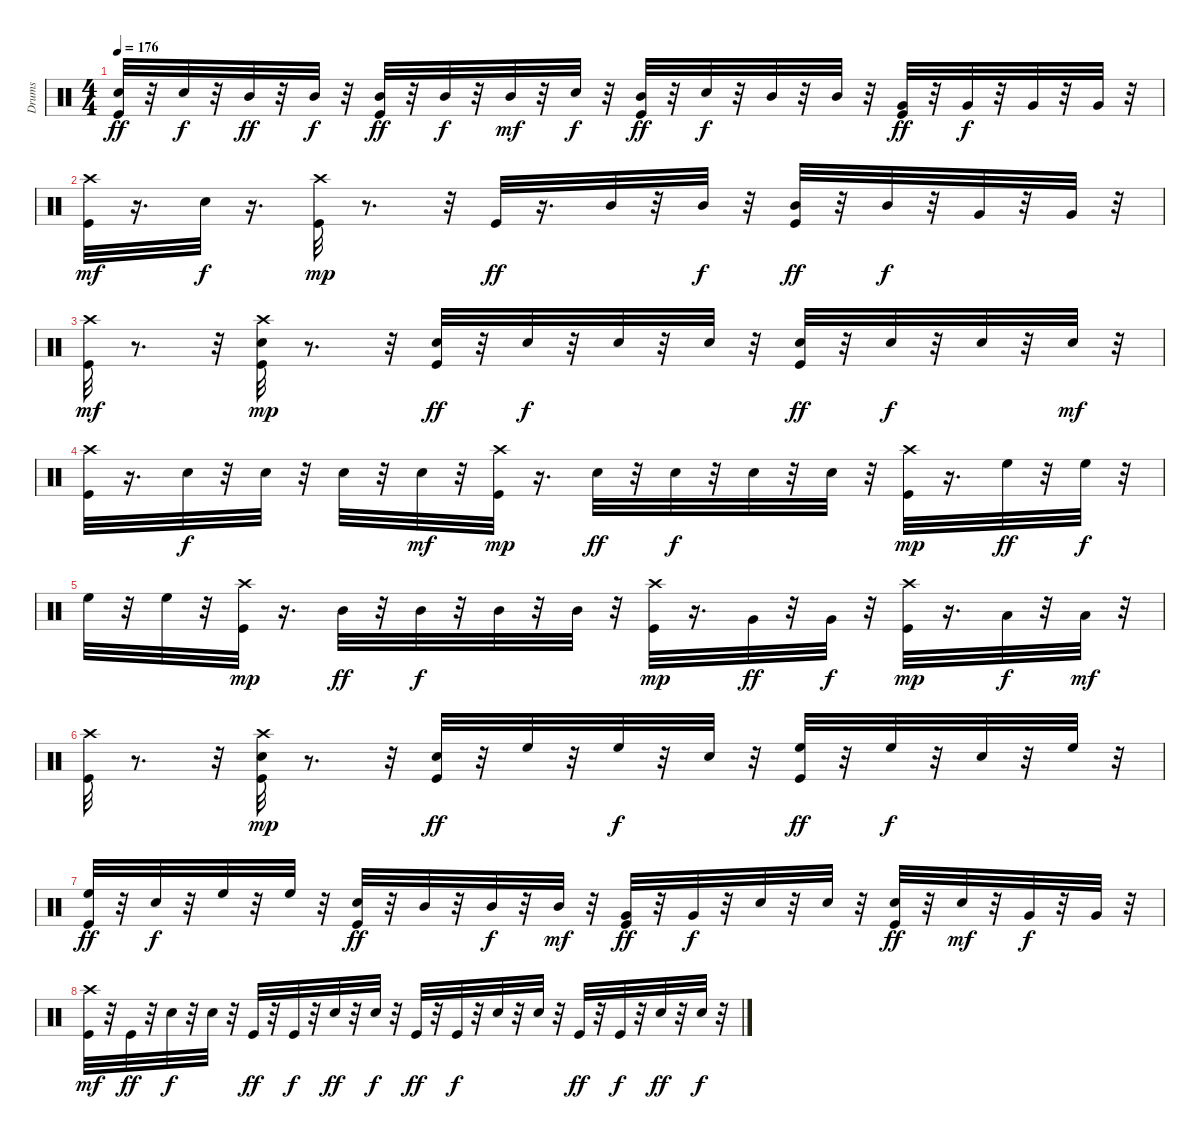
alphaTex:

\track ("Drums" "Drums") {instrument percussion}
\staff {score}
\articulation defaults
\ts (4 4)
\tempo 176
\clef neutral
\ks c
("Kick (hit)" "Snare (hit) 2").32{dy ff} r.32 "Snare (hit) 2".32{dy f} r.32 "Mid Tom (hit)".32{dy ff} r.32 "Mid Tom (hit)".32{dy f} r.32 ("Kick (hit)" "Mid Tom (hit)").32{dy ff} r.32 "Mid Tom (hit)".32{dy f} r.32 "Mid Tom (hit)".32{dy mf} r.32 "Snare (hit) 2".32{dy f} r.32 ("Kick (hit)" "Mid Tom (hit)").32{dy ff} r.32 "Snare (hit) 2".32{dy f} r.32 "Mid Tom (hit)".32 r.32 "Mid Tom (hit)".32 r.32 ("Kick (hit)" "Very Low Tom (hit)").32{dy ff} r.32 "Very Low Tom (hit)".32{dy f} r.32 "Very Low Tom (hit)".32 r.32 "Very Low Tom (hit)".32 r.32 |
("Kick (hit)" "Crash high (hit)").32{dy mf} r.16{d} "Snare (hit) 2".32{dy f} r.16{d} ("Kick (hit)" "Crash high (hit)").32{dy mp} r.8{d} r.32 "Kick (hit)".32{dy ff} r.16{d} "Mid Tom (hit)".32 r.32 "Mid Tom (hit)".32{dy f} r.32 ("Kick (hit)" "Mid Tom (hit)").32{dy ff} r.32 "Mid Tom (hit)".32{dy f} r.32 "Very Low Tom (hit)".32 r.32 "Very Low Tom (hit)".32 r.32 |
("Kick (hit)" "Crash high (hit)").32{dy mf} r.8{d} r.32 ("Kick (hit)" "Snare (hit) 2" "Crash high (hit)").32{dy mp} r.8{d} r.32 ("Kick (hit)" "Snare (hit) 2").32{dy ff} r.32 "Snare (hit) 2".32{dy f} r.32 "Snare (hit) 2".32 r.32 "Snare (hit) 2".32 r.32 ("Kick (hit)" "Snare (hit) 2").32{dy ff} r.32 "Snare (hit) 2".32{dy f} r.32 "Snare (hit) 2".32 r.32 "Snare (hit) 2".32{dy mf} r.32 |
("Kick (hit)" "Crash high (hit)").32 r.16{d} "Snare (hit) 2".32{dy f} r.32 "Snare (hit) 2".32 r.32 "Snare (hit) 2".32 r.32 "Snare (hit) 2".32{dy mf} r.32 ("Kick (hit)" "Crash high (hit)").32{dy mp} r.16{d} "Snare (hit) 2".32{dy ff} r.32 "Snare (hit) 2".32{dy f} r.32 "Snare (hit) 2".32 r.32 "Snare (hit) 2".32 r.32 ("Kick (hit)" "Crash high (hit)").32{dy mp} r.16{d} "High Floor Tom (hit)".32{dy ff} r.32 "High Floor Tom (hit)".32{dy f} r.32 |
"High Floor Tom (hit)".32 r.32 "High Floor Tom (hit)".32 r.32 ("Kick (hit)" "Crash high (hit)").32{dy mp} r.16{d} "Mid Tom (hit)".32{dy ff} r.32 "Mid Tom (hit)".32{dy f} r.32 "Mid Tom (hit)".32 r.32 "Mid Tom (hit)".32 r.32 ("Kick (hit)" "Crash high (hit)").32{dy mp} r.16{d} "Very Low Tom (hit)".32{dy ff} r.32 "Very Low Tom (hit)".32{dy f} r.32 ("Kick (hit)" "Crash high (hit)").32{dy mp} r.16{d} "Low Floor Tom (hit)".32{dy f} r.32 "Low Floor Tom (hit)".32{dy mf} r.32 |
("Kick (hit)" "Crash high (hit)").32 r.8{d} r.32 ("Kick (hit)" "Snare (hit) 2" "Crash high (hit)").32{dy mp} r.8{d} r.32 ("Kick (hit)" "Snare (hit) 2").32{dy ff} r.32 "High Floor Tom (hit)".32 r.32 "High Floor Tom (hit)".32{dy f} r.32 "Snare (hit) 2".32 r.32 ("Kick (hit)" "High Floor Tom (hit)").32{dy ff} r.32 "High Floor Tom (hit)".32{dy f} r.32 "Snare (hit) 2".32 r.32 "High Floor Tom (hit)".32 r.32 |
("Kick (hit)" "High Floor Tom (hit)").32{dy ff} r.32 "Snare (hit) 2".32{dy f} r.32 "High Floor Tom (hit)".32 r.32 "High Floor Tom (hit)".32 r.32 ("Kick (hit)" "Snare (hit) 2").32{dy ff} r.32 "Mid Tom (hit)".32 r.32 "Mid Tom (hit)".32{dy f} r.32 "Mid Tom (hit)".32{dy mf} r.32 ("Kick (hit)" "Very Low Tom (hit)").32{dy ff} r.32 "Very Low Tom (hit)".32{dy f} r.32 "Snare (hit) 2".32 r.32 "Snare (hit) 2".32 r.32 ("Kick (hit)" "Snare (hit) 2").32{dy ff} r.32 "Snare (hit) 2".32{dy mf} r.32 "Very Low Tom (hit)".32{dy f} r.32 "Very Low Tom (hit)".32 r.32 |
("Kick (hit)" "Crash high (hit)").32{dy mf} r.32 "Kick (hit)".32{dy ff} r.32 "Snare (hit) 2".32{dy f} r.32 "Snare (hit) 2".32 r.32 "Kick (hit)".32{dy ff} r.32 "Kick (hit)".32{dy f} r.32 "Snare (hit) 2".32{dy ff} r.32 "Snare (hit) 2".32{dy f} r.32 "Kick (hit)".32{dy ff} r.32 "Kick (hit)".32{dy f} r.32 "Snare (hit) 2".32 r.32 "Snare (hit) 2".32 r.32 "Kick (hit)".32{dy ff} r.32 "Kick (hit)".32{dy f} r.32 "Snare (hit) 2".32{dy ff} r.32 "Snare (hit) 2".32{dy f} r.32
